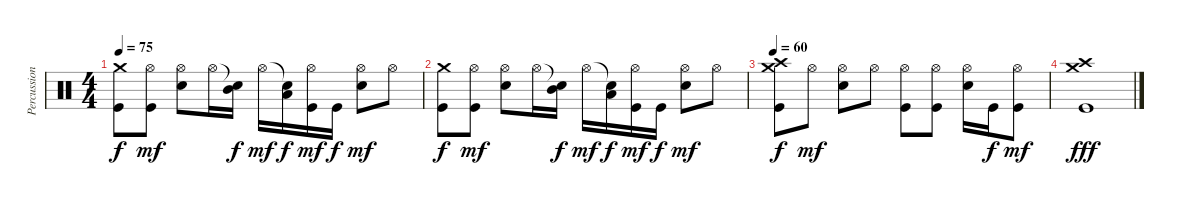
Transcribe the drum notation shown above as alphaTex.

\track ("Percussion" "Percussion") {instrument percussion}
\staff {score}
\articulation defaults
\ts (4 4)
\tempo 75
\clef neutral
\ks c
("Crash medium (hit)" "Kick (hit)").8{dy f} ("Hi-Hat (open)" "Kick (hit)").8{dy mf} ("Hi-Hat (open)" "Snare (hit) 2").8 "Hi-Hat (open)".16 ("Snare (hit)"{t} "Mid Tom (hit)").16{dy f} "Hi-Hat (open)".16{dy mf} ("Snare (hit)"{t} "Low Tom (hit)").16{dy f} ("Hi-Hat (open)" "Kick (hit)").16{dy mf} "Kick (hit)".16{dy f} ("Hi-Hat (open)" "Snare (hit) 2").8{dy mf} "Hi-Hat (open)".8 |
("Crash medium (hit)" "Kick (hit)").8{dy f} ("Hi-Hat (open)" "Kick (hit)").8{dy mf} ("Hi-Hat (open)" "Snare (hit) 2").8 "Hi-Hat (open)".16 ("Snare (hit)"{t} "Mid Tom (hit)").16{dy f} "Hi-Hat (open)".16{dy mf} ("Snare (hit)"{t} "Low Tom (hit)").16{dy f} ("Hi-Hat (open)" "Kick (hit)").16{dy mf} "Kick (hit)".16{dy f} ("Hi-Hat (open)" "Snare (hit) 2").8{dy mf} "Hi-Hat (open)".8 |
\tempo 60
("Crash high (hit)" "Crash medium (hit)" "Kick (hit)").8{dy f} "Hi-Hat (open)".8{dy mf} ("Hi-Hat (open)" "Snare (hit) 2").8 "Hi-Hat (open)".8 ("Hi-Hat (open)" "Kick (hit)").8 ("Hi-Hat (open)" "Kick (hit)").8 ("Hi-Hat (open)" "Snare (hit) 2").16 "Kick (hit)".16{dy f} ("Hi-Hat (open)" "Kick (hit)").8{dy mf} |
("Crash high (hit)" "Crash medium (hit)" "Kick (hit)").1{dy fff}
